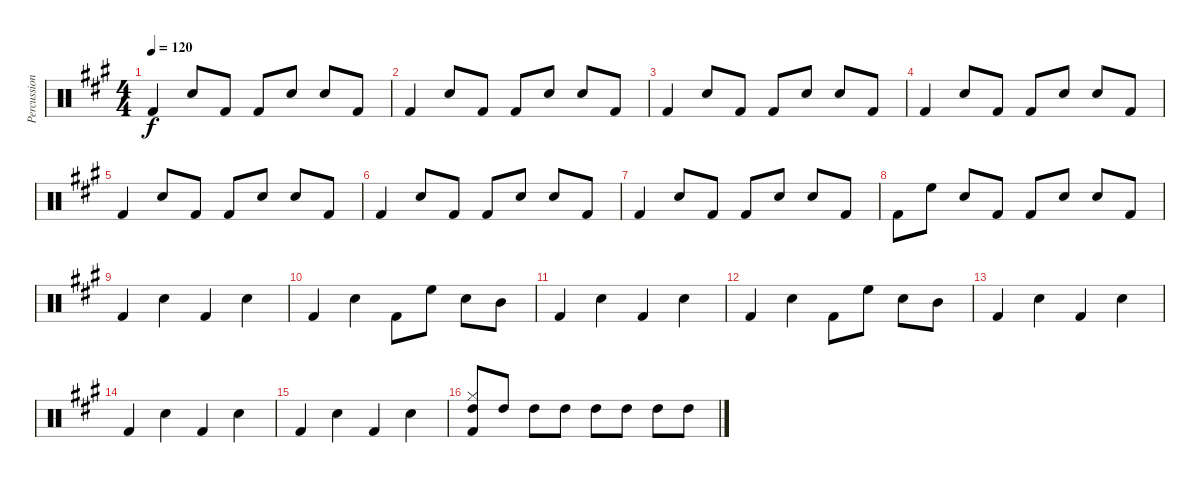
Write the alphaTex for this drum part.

\track ("Percussion" "Percussion") {instrument percussion}
\staff {score}
\articulation defaults
\ts (4 4)
\tempo 120
\clef neutral
\ks a "Kick (hit) 2".4{dy f} "Snare (hit) 2".8 "Kick (hit) 2".8 "Kick (hit) 2".8 "Snare (hit) 2".8 "Snare (hit) 2".8 "Kick (hit) 2".8
|
"Kick (hit) 2".4 "Snare (hit) 2".8 "Kick (hit) 2".8 "Kick (hit) 2".8 "Snare (hit) 2".8 "Snare (hit) 2".8 "Kick (hit) 2".8 |
"Kick (hit) 2".4 "Snare (hit) 2".8 "Kick (hit) 2".8 "Kick (hit) 2".8 "Snare (hit) 2".8 "Snare (hit) 2".8 "Kick (hit) 2".8 |
"Kick (hit) 2".4 "Snare (hit) 2".8 "Kick (hit) 2".8 "Kick (hit) 2".8 "Snare (hit) 2".8 "Snare (hit) 2".8 "Kick (hit) 2".8 |
"Kick (hit) 2".4 "Snare (hit) 2".8 "Kick (hit) 2".8 "Kick (hit) 2".8 "Snare (hit) 2".8 "Snare (hit) 2".8 "Kick (hit) 2".8 |
"Kick (hit) 2".4 "Snare (hit) 2".8 "Kick (hit) 2".8 "Kick (hit) 2".8 "Snare (hit) 2".8 "Snare (hit) 2".8 "Kick (hit) 2".8 |
"Kick (hit) 2".4 "Snare (hit) 2".8 "Kick (hit) 2".8 "Kick (hit) 2".8 "Snare (hit) 2".8 "Snare (hit) 2".8 "Kick (hit) 2".8 |
"Kick (hit) 2".8 "High Floor Tom (hit)".8 "Snare (hit) 2".8 "Kick (hit) 2".8 "Kick (hit) 2".8 "Snare (hit) 2".8 "Snare (hit) 2".8 "Kick (hit) 2".8 |
"Kick (hit) 2".4 "Snare (hit) 2".4 "Kick (hit) 2".4 "Snare (hit) 2".4 |
"Kick (hit) 2".4 "Snare (hit) 2".4 "Kick (hit) 2".8 "High Floor Tom (hit)".8 "Snare (hit) 2".8 "Mid Tom (hit)".8 |
"Kick (hit) 2".4 "Snare (hit) 2".4 "Kick (hit) 2".4 "Snare (hit) 2".4 |
"Kick (hit) 2".4 "Snare (hit) 2".4 "Kick (hit) 2".8 "High Floor Tom (hit)".8 "Snare (hit) 2".8 "Mid Tom (hit)".8 |
"Kick (hit) 2".4 "Snare (hit) 2".4 "Kick (hit) 2".4 "Snare (hit) 2".4 |
"Kick (hit) 2".4 "Snare (hit) 2".4 "Kick (hit) 2".4 "Snare (hit) 2".4 |
"Kick (hit) 2".4 "Snare (hit) 2".4 "Kick (hit) 2".4 "Snare (hit) 2".4 |
("Hi-Hat (closed)" "High Tom (hit)" "Kick (hit) 2").8 "High Tom (hit)".8 "High Tom (hit)".8 "High Tom (hit)".8 "High Tom (hit)".8 "High Tom (hit)".8 "High Tom (hit)".8 "High Tom (hit)".8
